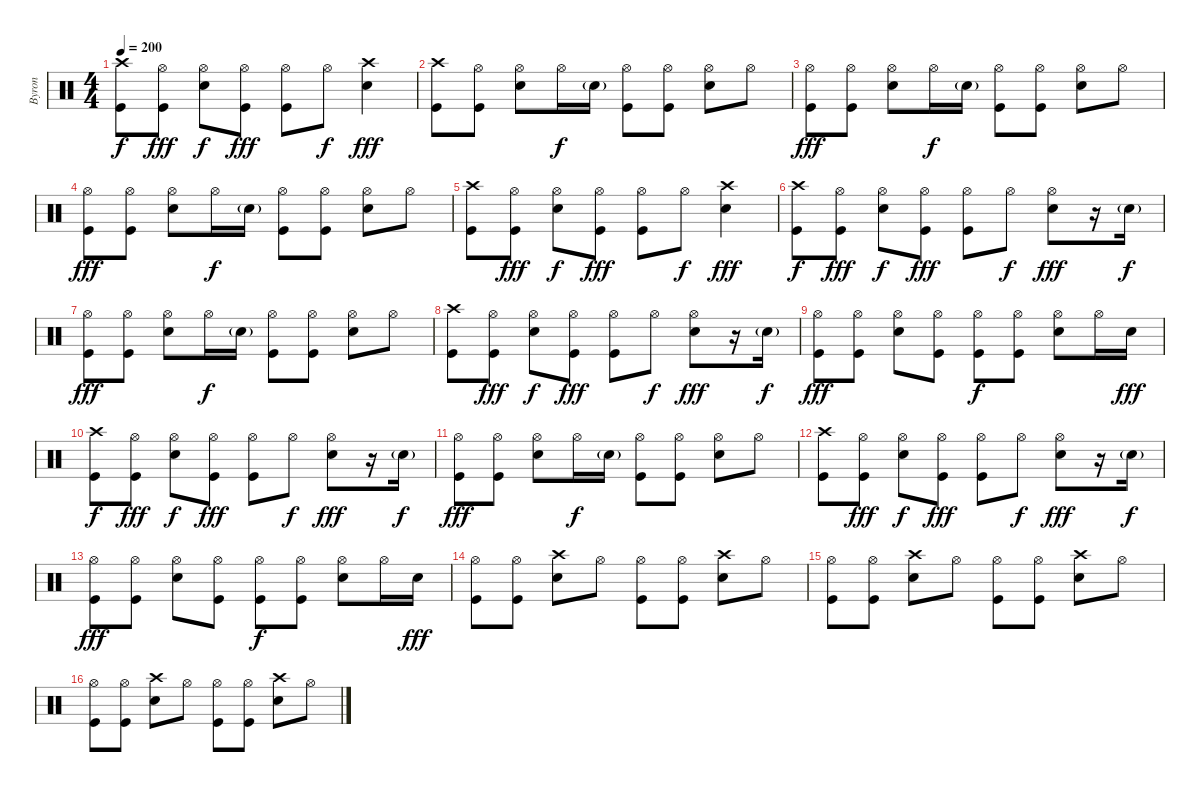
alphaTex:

\track ("Byron" "Byron") {instrument percussion}
\staff {score}
\articulation defaults
\ts (4 4)
\tempo 200
\clef neutral
\ks c
("Crash high (hit)" "Kick (hit)").8{dy f} ("Hi-Hat (open)" "Kick (hit)").8{dy fff} ("Hi-Hat (open)" "Electric Snare (hit)").8{dy f} ("Hi-Hat (open)" "Kick (hit)").8{dy fff} ("Hi-Hat (open)" "Kick (hit)").8 "Hi-Hat (open)".8{dy f} ("Electric Snare (hit)" "Crash high (hit)").4{dy fff} |
("Crash high (hit)" "Kick (hit)").8 ("Hi-Hat (open)" "Kick (hit)").8 ("Hi-Hat (open)" "Electric Snare (hit)").8 "Hi-Hat (open)".16{dy f} "Electric Snare (hit)"{g}.16 ("Hi-Hat (open)" "Kick (hit)").8 ("Hi-Hat (open)" "Kick (hit)").8 ("Hi-Hat (open)" "Electric Snare (hit)").8 "Hi-Hat (open)".8 |
("Hi-Hat (open)" "Kick (hit)").8{dy fff} ("Hi-Hat (open)" "Kick (hit)").8 ("Hi-Hat (open)" "Electric Snare (hit)").8 "Hi-Hat (open)".16{dy f} "Electric Snare (hit)"{g}.16 ("Hi-Hat (open)" "Kick (hit)").8 ("Hi-Hat (open)" "Kick (hit)").8 ("Hi-Hat (open)" "Electric Snare (hit)").8 "Hi-Hat (open)".8 |
("Hi-Hat (open)" "Kick (hit)").8{dy fff} ("Hi-Hat (open)" "Kick (hit)").8 ("Hi-Hat (open)" "Electric Snare (hit)").8 "Hi-Hat (open)".16{dy f} "Electric Snare (hit)"{g}.16 ("Hi-Hat (open)" "Kick (hit)").8 ("Hi-Hat (open)" "Kick (hit)").8 ("Hi-Hat (open)" "Electric Snare (hit)").8 "Hi-Hat (open)".8 |
("Crash high (hit)" "Kick (hit)").8 ("Hi-Hat (open)" "Kick (hit)").8{dy fff} ("Hi-Hat (open)" "Electric Snare (hit)").8{dy f} ("Hi-Hat (open)" "Kick (hit)").8{dy fff} ("Hi-Hat (open)" "Kick (hit)").8 "Hi-Hat (open)".8{dy f} ("Electric Snare (hit)" "Crash high (hit)").4{dy fff} |
("Crash high (hit)" "Kick (hit)").8{dy f} ("Hi-Hat (open)" "Kick (hit)").8{dy fff} ("Hi-Hat (open)" "Electric Snare (hit)").8{dy f} ("Hi-Hat (open)" "Kick (hit)").8{dy fff} ("Hi-Hat (open)" "Kick (hit)").8 "Hi-Hat (open)".8{dy f} ("Electric Snare (hit)" "Hi-Hat (open)").8{dy fff} r.16 "Electric Snare (hit)"{g}.16{dy f} |
("Hi-Hat (open)" "Kick (hit)").8{dy fff} ("Hi-Hat (open)" "Kick (hit)").8 ("Hi-Hat (open)" "Electric Snare (hit)").8 "Hi-Hat (open)".16{dy f} "Electric Snare (hit)"{g}.16 ("Hi-Hat (open)" "Kick (hit)").8 ("Hi-Hat (open)" "Kick (hit)").8 ("Hi-Hat (open)" "Electric Snare (hit)").8 "Hi-Hat (open)".8 |
("Crash high (hit)" "Kick (hit)").8 ("Hi-Hat (open)" "Kick (hit)").8{dy fff} ("Hi-Hat (open)" "Electric Snare (hit)").8{dy f} ("Hi-Hat (open)" "Kick (hit)").8{dy fff} ("Hi-Hat (open)" "Kick (hit)").8 "Hi-Hat (open)".8{dy f} ("Electric Snare (hit)" "Hi-Hat (open)").8{dy fff} r.16 "Electric Snare (hit)"{g}.16{dy f} |
("Hi-Hat (open)" "Kick (hit)").8{dy fff} ("Hi-Hat (open)" "Kick (hit)").8 ("Hi-Hat (open)" "Electric Snare (hit)").8 ("Hi-Hat (open)" "Kick (hit)").8 ("Hi-Hat (open)" "Kick (hit)").8{dy f} ("Hi-Hat (open)" "Kick (hit)").8 ("Hi-Hat (open)" "Electric Snare (hit)").8 "Hi-Hat (open)".16 "Electric Snare (hit)".16{dy fff} |
("Crash high (hit)" "Kick (hit)").8{dy f} ("Hi-Hat (open)" "Kick (hit)").8{dy fff} ("Hi-Hat (open)" "Electric Snare (hit)").8{dy f} ("Hi-Hat (open)" "Kick (hit)").8{dy fff} ("Hi-Hat (open)" "Kick (hit)").8 "Hi-Hat (open)".8{dy f} ("Electric Snare (hit)" "Hi-Hat (open)").8{dy fff} r.16 "Electric Snare (hit)"{g}.16{dy f} |
("Hi-Hat (open)" "Kick (hit)").8{dy fff} ("Hi-Hat (open)" "Kick (hit)").8 ("Hi-Hat (open)" "Electric Snare (hit)").8 "Hi-Hat (open)".16{dy f} "Electric Snare (hit)"{g}.16 ("Hi-Hat (open)" "Kick (hit)").8 ("Hi-Hat (open)" "Kick (hit)").8 ("Hi-Hat (open)" "Electric Snare (hit)").8 "Hi-Hat (open)".8 |
("Crash high (hit)" "Kick (hit)").8 ("Hi-Hat (open)" "Kick (hit)").8{dy fff} ("Hi-Hat (open)" "Electric Snare (hit)").8{dy f} ("Hi-Hat (open)" "Kick (hit)").8{dy fff} ("Hi-Hat (open)" "Kick (hit)").8 "Hi-Hat (open)".8{dy f} ("Electric Snare (hit)" "Hi-Hat (open)").8{dy fff} r.16 "Electric Snare (hit)"{g}.16{dy f} |
("Hi-Hat (open)" "Kick (hit)").8{dy fff} ("Hi-Hat (open)" "Kick (hit)").8 ("Hi-Hat (open)" "Electric Snare (hit)").8 ("Hi-Hat (open)" "Kick (hit)").8 ("Hi-Hat (open)" "Kick (hit)").8{dy f} ("Hi-Hat (open)" "Kick (hit)").8 ("Hi-Hat (open)" "Electric Snare (hit)").8 "Hi-Hat (open)".16 "Electric Snare (hit)".16{dy fff} |
("Hi-Hat (open)" "Kick (hit)").8 ("Kick (hit)" "Hi-Hat (open)").8 ("Crash high (hit)" "Electric Snare (hit)").8 "Hi-Hat (open)".8 ("Kick (hit)" "Hi-Hat (open)").8 ("Kick (hit)" "Hi-Hat (open)").8 ("Electric Snare (hit)" "Crash high (hit)").8 "Hi-Hat (open)".8 |
("Hi-Hat (open)" "Kick (hit)").8 ("Kick (hit)" "Hi-Hat (open)").8 ("Crash high (hit)" "Electric Snare (hit)").8 "Hi-Hat (open)".8 ("Kick (hit)" "Hi-Hat (open)").8 ("Kick (hit)" "Hi-Hat (open)").8 ("Electric Snare (hit)" "Crash high (hit)").8 "Hi-Hat (open)".8 |
("Hi-Hat (open)" "Kick (hit)").8 ("Kick (hit)" "Hi-Hat (open)").8 ("Crash high (hit)" "Electric Snare (hit)").8 "Hi-Hat (open)".8 ("Kick (hit)" "Hi-Hat (open)").8 ("Kick (hit)" "Hi-Hat (open)").8 ("Electric Snare (hit)" "Crash high (hit)").8 "Hi-Hat (open)".8
